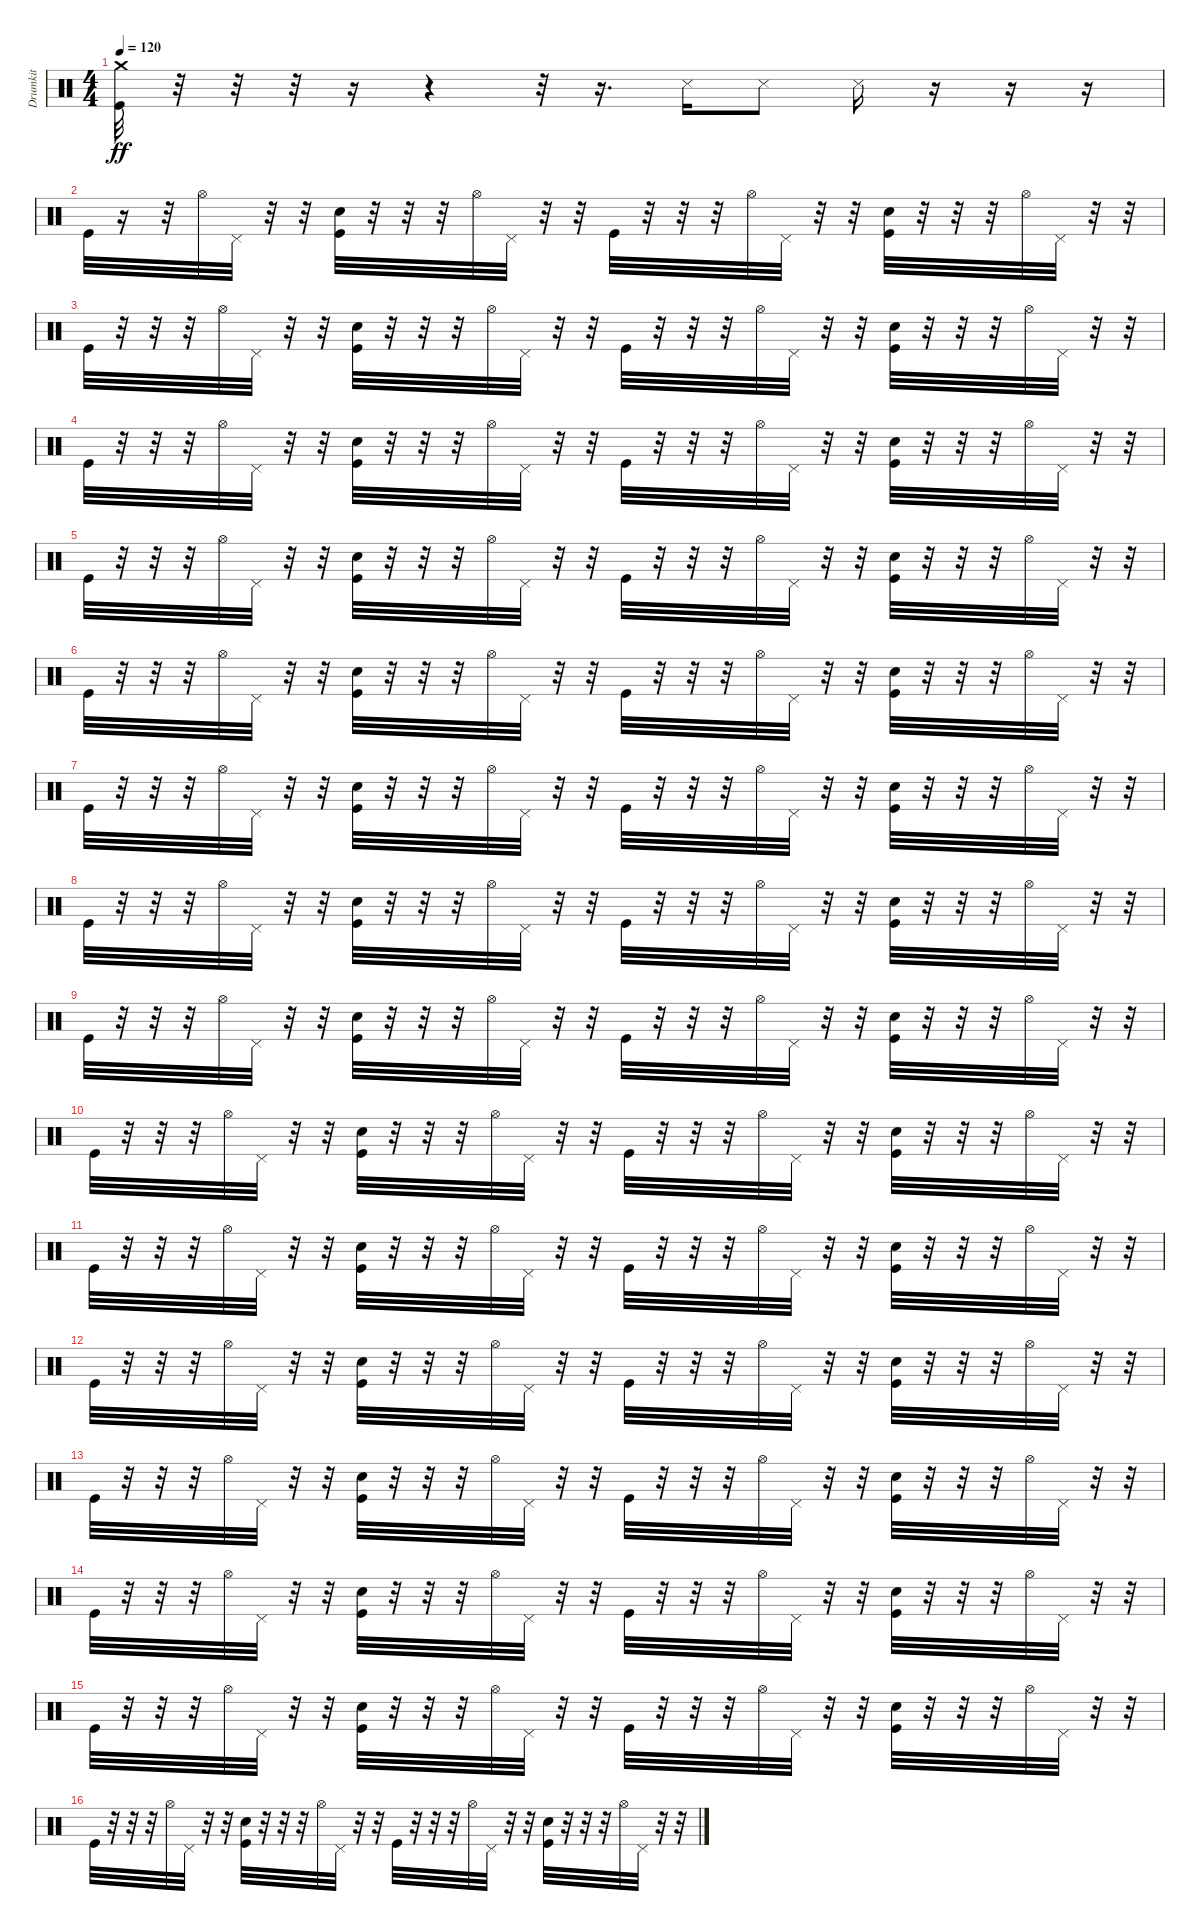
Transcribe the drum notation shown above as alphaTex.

\track ("Drumkit" "Drumkit") {instrument percussion}
\staff {score}
\articulation defaults
\ts (4 4)
\tempo 120
\clef neutral
\ks c
("Kick (hit)" "Crash medium (hit)").32{dy ff} r.32 r.32 r.32 r.16 r.4 r.32 r.16{d} "Snare (side stick) 3".16 "Snare (side stick) 3".8 "Snare (side stick) 3".16 r.16 r.16 r.16 |
"Kick (hit)".32 r.16 r.32 "Hi-Hat (open)".32 "Pedal Hi-Hat (hit)".32 r.32 r.32 ("Snare (hit) 2" "Kick (hit)").32 r.32 r.32 r.32 "Hi-Hat (open)".32 "Pedal Hi-Hat (hit)".32 r.32 r.32 "Kick (hit)".32 r.32 r.32 r.32 "Hi-Hat (open)".32 "Pedal Hi-Hat (hit)".32 r.32 r.32 ("Kick (hit)" "Snare (hit) 2").32 r.32 r.32 r.32 "Hi-Hat (open)".32 "Pedal Hi-Hat (hit)".32 r.32 r.32 |
"Kick (hit)".32 r.32 r.32 r.32 "Hi-Hat (open)".32 "Pedal Hi-Hat (hit)".32 r.32 r.32 ("Snare (hit) 2" "Kick (hit)").32 r.32 r.32 r.32 "Hi-Hat (open)".32 "Pedal Hi-Hat (hit)".32 r.32 r.32 "Kick (hit)".32 r.32 r.32 r.32 "Hi-Hat (open)".32 "Pedal Hi-Hat (hit)".32 r.32 r.32 ("Snare (hit) 2" "Kick (hit)").32 r.32 r.32 r.32 "Hi-Hat (open)".32 "Pedal Hi-Hat (hit)".32 r.32 r.32 |
"Kick (hit)".32 r.32 r.32 r.32 "Hi-Hat (open)".32 "Pedal Hi-Hat (hit)".32 r.32 r.32 ("Snare (hit) 2" "Kick (hit)").32 r.32 r.32 r.32 "Hi-Hat (open)".32 "Pedal Hi-Hat (hit)".32 r.32 r.32 "Kick (hit)".32 r.32 r.32 r.32 "Hi-Hat (open)".32 "Pedal Hi-Hat (hit)".32 r.32 r.32 ("Kick (hit)" "Snare (hit) 2").32 r.32 r.32 r.32 "Hi-Hat (open)".32 "Pedal Hi-Hat (hit)".32 r.32 r.32 |
"Kick (hit)".32 r.32 r.32 r.32 "Hi-Hat (open)".32 "Pedal Hi-Hat (hit)".32 r.32 r.32 ("Kick (hit)" "Snare (hit) 2").32 r.32 r.32 r.32 "Hi-Hat (open)".32 "Pedal Hi-Hat (hit)".32 r.32 r.32 "Kick (hit)".32 r.32 r.32 r.32 "Hi-Hat (open)".32 "Pedal Hi-Hat (hit)".32 r.32 r.32 ("Kick (hit)" "Snare (hit) 2").32 r.32 r.32 r.32 "Hi-Hat (open)".32 "Pedal Hi-Hat (hit)".32 r.32 r.32 |
"Kick (hit)".32 r.32 r.32 r.32 "Hi-Hat (open)".32 "Pedal Hi-Hat (hit)".32 r.32 r.32 ("Snare (hit) 2" "Kick (hit)").32 r.32 r.32 r.32 "Hi-Hat (open)".32 "Pedal Hi-Hat (hit)".32 r.32 r.32 "Kick (hit)".32 r.32 r.32 r.32 "Hi-Hat (open)".32 "Pedal Hi-Hat (hit)".32 r.32 r.32 ("Kick (hit)" "Snare (hit) 2").32 r.32 r.32 r.32 "Hi-Hat (open)".32 "Pedal Hi-Hat (hit)".32 r.32 r.32 |
"Kick (hit)".32 r.32 r.32 r.32 "Hi-Hat (open)".32 "Pedal Hi-Hat (hit)".32 r.32 r.32 ("Snare (hit) 2" "Kick (hit)").32 r.32 r.32 r.32 "Hi-Hat (open)".32 "Pedal Hi-Hat (hit)".32 r.32 r.32 "Kick (hit)".32 r.32 r.32 r.32 "Hi-Hat (open)".32 "Pedal Hi-Hat (hit)".32 r.32 r.32 ("Snare (hit) 2" "Kick (hit)").32 r.32 r.32 r.32 "Hi-Hat (open)".32 "Pedal Hi-Hat (hit)".32 r.32 r.32 |
"Kick (hit)".32 r.32 r.32 r.32 "Hi-Hat (open)".32 "Pedal Hi-Hat (hit)".32 r.32 r.32 ("Snare (hit) 2" "Kick (hit)").32 r.32 r.32 r.32 "Hi-Hat (open)".32 "Pedal Hi-Hat (hit)".32 r.32 r.32 "Kick (hit)".32 r.32 r.32 r.32 "Hi-Hat (open)".32 "Pedal Hi-Hat (hit)".32 r.32 r.32 ("Kick (hit)" "Snare (hit) 2").32 r.32 r.32 r.32 "Hi-Hat (open)".32 "Pedal Hi-Hat (hit)".32 r.32 r.32 |
"Kick (hit)".32 r.32 r.32 r.32 "Hi-Hat (open)".32 "Pedal Hi-Hat (hit)".32 r.32 r.32 ("Kick (hit)" "Snare (hit) 2").32 r.32 r.32 r.32 "Hi-Hat (open)".32 "Pedal Hi-Hat (hit)".32 r.32 r.32 "Kick (hit)".32 r.32 r.32 r.32 "Hi-Hat (open)".32 "Pedal Hi-Hat (hit)".32 r.32 r.32 ("Kick (hit)" "Snare (hit) 2").32 r.32 r.32 r.32 "Hi-Hat (open)".32 "Pedal Hi-Hat (hit)".32 r.32 r.32 |
"Kick (hit)".32 r.32 r.32 r.32 "Hi-Hat (open)".32 "Pedal Hi-Hat (hit)".32 r.32 r.32 ("Snare (hit) 2" "Kick (hit)").32 r.32 r.32 r.32 "Hi-Hat (open)".32 "Pedal Hi-Hat (hit)".32 r.32 r.32 "Kick (hit)".32 r.32 r.32 r.32 "Hi-Hat (open)".32 "Pedal Hi-Hat (hit)".32 r.32 r.32 ("Kick (hit)" "Snare (hit) 2").32 r.32 r.32 r.32 "Hi-Hat (open)".32 "Pedal Hi-Hat (hit)".32 r.32 r.32 |
"Kick (hit)".32 r.32 r.32 r.32 "Hi-Hat (open)".32 "Pedal Hi-Hat (hit)".32 r.32 r.32 ("Snare (hit) 2" "Kick (hit)").32 r.32 r.32 r.32 "Hi-Hat (open)".32 "Pedal Hi-Hat (hit)".32 r.32 r.32 "Kick (hit)".32 r.32 r.32 r.32 "Hi-Hat (open)".32 "Pedal Hi-Hat (hit)".32 r.32 r.32 ("Snare (hit) 2" "Kick (hit)").32 r.32 r.32 r.32 "Hi-Hat (open)".32 "Pedal Hi-Hat (hit)".32 r.32 r.32 |
"Kick (hit)".32 r.32 r.32 r.32 "Hi-Hat (open)".32 "Pedal Hi-Hat (hit)".32 r.32 r.32 ("Snare (hit) 2" "Kick (hit)").32 r.32 r.32 r.32 "Hi-Hat (open)".32 "Pedal Hi-Hat (hit)".32 r.32 r.32 "Kick (hit)".32 r.32 r.32 r.32 "Hi-Hat (open)".32 "Pedal Hi-Hat (hit)".32 r.32 r.32 ("Kick (hit)" "Snare (hit) 2").32 r.32 r.32 r.32 "Hi-Hat (open)".32 "Pedal Hi-Hat (hit)".32 r.32 r.32 |
"Kick (hit)".32 r.32 r.32 r.32 "Hi-Hat (open)".32 "Pedal Hi-Hat (hit)".32 r.32 r.32 ("Kick (hit)" "Snare (hit) 2").32 r.32 r.32 r.32 "Hi-Hat (open)".32 "Pedal Hi-Hat (hit)".32 r.32 r.32 "Kick (hit)".32 r.32 r.32 r.32 "Hi-Hat (open)".32 "Pedal Hi-Hat (hit)".32 r.32 r.32 ("Kick (hit)" "Snare (hit) 2").32 r.32 r.32 r.32 "Hi-Hat (open)".32 "Pedal Hi-Hat (hit)".32 r.32 r.32 |
"Kick (hit)".32 r.32 r.32 r.32 "Hi-Hat (open)".32 "Pedal Hi-Hat (hit)".32 r.32 r.32 ("Snare (hit) 2" "Kick (hit)").32 r.32 r.32 r.32 "Hi-Hat (open)".32 "Pedal Hi-Hat (hit)".32 r.32 r.32 "Kick (hit)".32 r.32 r.32 r.32 "Hi-Hat (open)".32 "Pedal Hi-Hat (hit)".32 r.32 r.32 ("Kick (hit)" "Snare (hit) 2").32 r.32 r.32 r.32 "Hi-Hat (open)".32 "Pedal Hi-Hat (hit)".32 r.32 r.32 |
"Kick (hit)".32 r.32 r.32 r.32 "Hi-Hat (open)".32 "Pedal Hi-Hat (hit)".32 r.32 r.32 ("Snare (hit) 2" "Kick (hit)").32 r.32 r.32 r.32 "Hi-Hat (open)".32 "Pedal Hi-Hat (hit)".32 r.32 r.32 "Kick (hit)".32 r.32 r.32 r.32 "Hi-Hat (open)".32 "Pedal Hi-Hat (hit)".32 r.32 r.32 ("Snare (hit) 2" "Kick (hit)").32 r.32 r.32 r.32 "Hi-Hat (open)".32 "Pedal Hi-Hat (hit)".32 r.32 r.32 |
"Kick (hit)".32 r.32 r.32 r.32 "Hi-Hat (open)".32 "Pedal Hi-Hat (hit)".32 r.32 r.32 ("Snare (hit) 2" "Kick (hit)").32 r.32 r.32 r.32 "Hi-Hat (open)".32 "Pedal Hi-Hat (hit)".32 r.32 r.32 "Kick (hit)".32 r.32 r.32 r.32 "Hi-Hat (open)".32 "Pedal Hi-Hat (hit)".32 r.32 r.32 ("Kick (hit)" "Snare (hit) 2").32 r.32 r.32 r.32 "Hi-Hat (open)".32 "Pedal Hi-Hat (hit)".32 r.32 r.32
